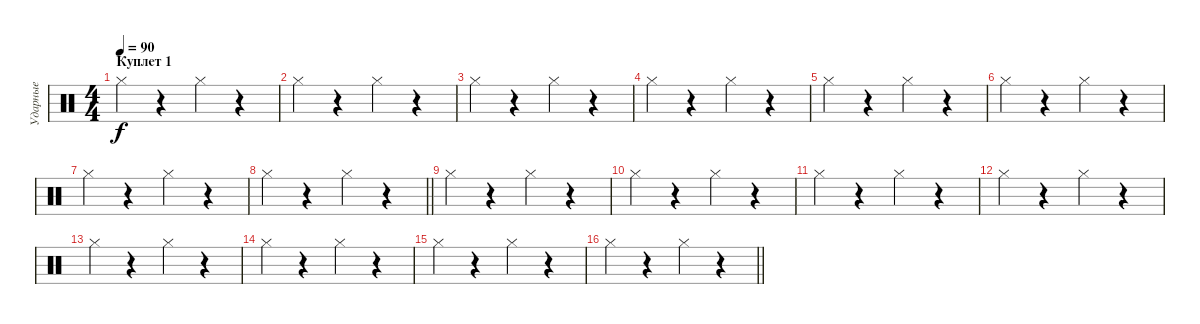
\track ("Ударные" "Ударные") {instrument percussion}
\staff {score}
\articulation defaults
\ts (4 4)
\section ("" "Куплет 1")
\tempo 90
\clef neutral
\ks c "Hi-Hat (closed)".4{dy f}
r.4 "Hi-Hat (closed)".4 r.4 |
"Hi-Hat (closed)".4 r.4 "Hi-Hat (closed)".4 r.4 |
"Hi-Hat (closed)".4 r.4 "Hi-Hat (closed)".4 r.4 |
"Hi-Hat (closed)".4 r.4 "Hi-Hat (closed)".4 r.4 |
"Hi-Hat (closed)".4 r.4 "Hi-Hat (closed)".4 r.4 |
"Hi-Hat (closed)".4 r.4 "Hi-Hat (closed)".4 r.4 |
"Hi-Hat (closed)".4 r.4 "Hi-Hat (closed)".4 r.4 |
\barLineRight lightlight "Hi-Hat (closed)".4
r.4 "Hi-Hat (closed)".4 r.4 |
"Hi-Hat (closed)".4 r.4 "Hi-Hat (closed)".4 r.4 |
"Hi-Hat (closed)".4 r.4 "Hi-Hat (closed)".4 r.4 |
"Hi-Hat (closed)".4 r.4 "Hi-Hat (closed)".4 r.4 |
"Hi-Hat (closed)".4 r.4 "Hi-Hat (closed)".4 r.4 |
"Hi-Hat (closed)".4 r.4 "Hi-Hat (closed)".4 r.4 |
"Hi-Hat (closed)".4 r.4 "Hi-Hat (closed)".4 r.4 |
"Hi-Hat (closed)".4 r.4 "Hi-Hat (closed)".4 r.4 |
\barLineRight lightlight "Hi-Hat (closed)".4
r.4 "Hi-Hat (closed)".4 r.4
